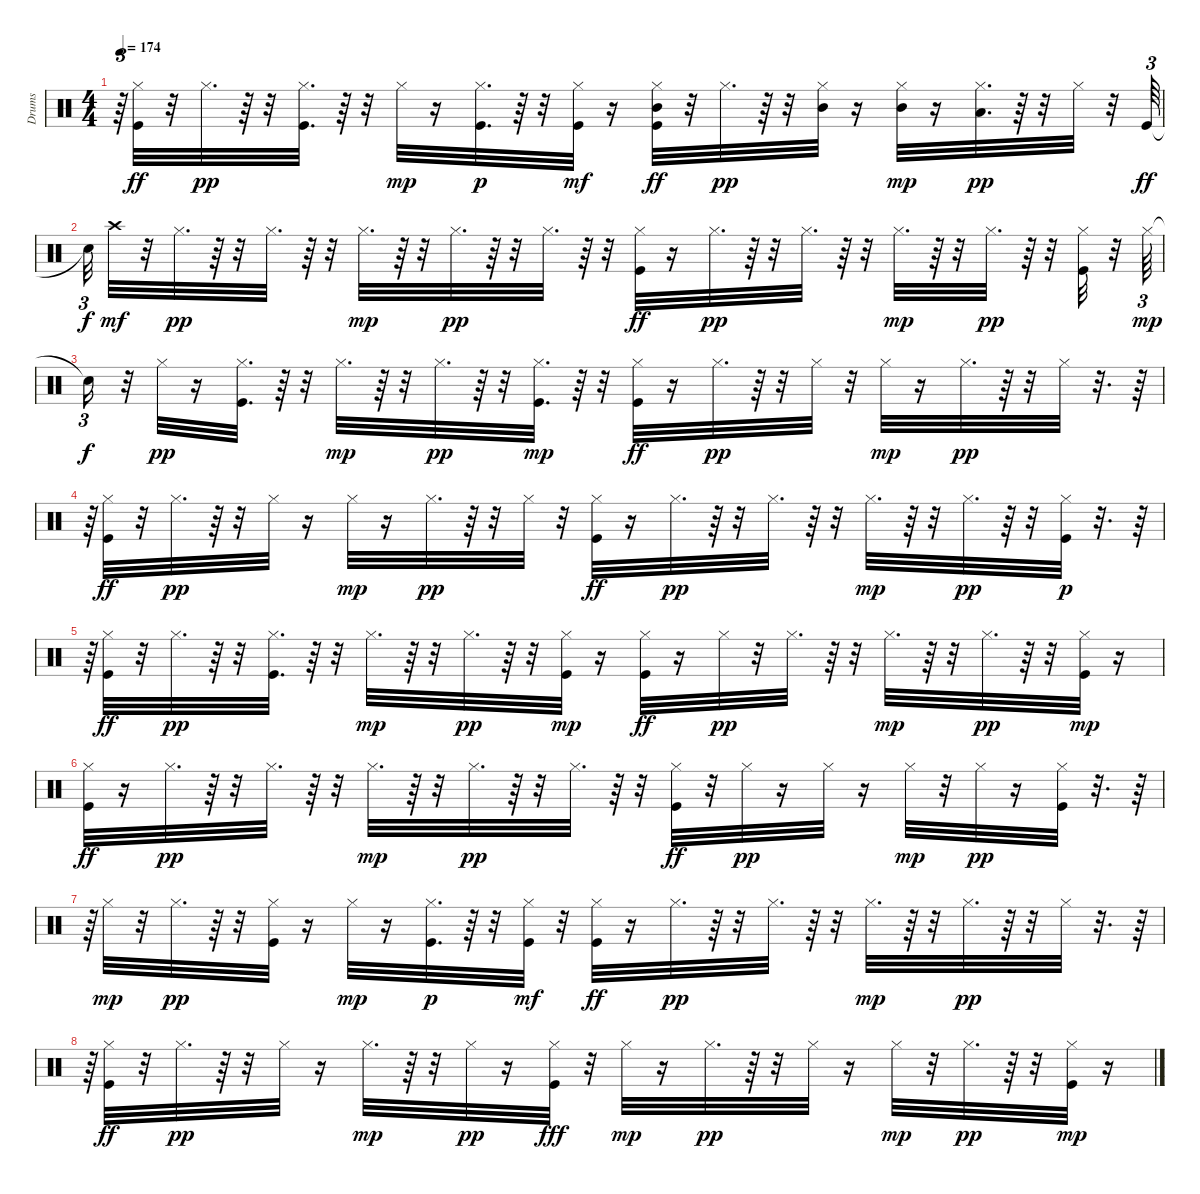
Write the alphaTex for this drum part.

\track ("Drums" "Drums") {instrument percussion}
\staff {score}
\articulation defaults
\ts (4 4)
\tempo 174
\clef neutral
\ks c
r.64{tu (3 2) dy mp} ("Hi-Hat (closed)" "Kick (hit)").32{dy ff} r.32 "Hi-Hat (closed)".32{d dy pp} r.64 r.32 ("Hi-Hat (closed)" "Kick (hit)").32{d} r.64 r.32 "Hi-Hat (closed)".32{dy mp} r.16 ("Hi-Hat (closed)" "Kick (hit)").32{d dy p} r.64 r.32 ("Hi-Hat (closed)" "Kick (hit)").32{dy mf} r.16 ("Hi-Hat (closed)" "Kick (hit)" "Mid Tom (hit)").32{dy ff} r.32 "Hi-Hat (closed)".32{d dy pp} r.64 r.32 ("Hi-Hat (closed)" "Mid Tom (hit)").32 r.16 ("Hi-Hat (closed)" "Mid Tom (hit)").32{dy mp} r.16 ("Hi-Hat (closed)" "Low Tom (hit)").32{d dy pp} r.64 r.32 "Hi-Hat (closed)".32 r.32 "Kick (hit)".64{tu (3 2) dy ff} |
"Snare (hit)"{t}.32{tu (3 2) dy f} "Crash high (hit)".32{dy mf} r.32 "Hi-Hat (closed)".32{d dy pp} r.64 r.32 "Hi-Hat (closed)".32{d} r.64 r.32 "Hi-Hat (closed)".32{d dy mp} r.64 r.32 "Hi-Hat (closed)".32{d dy pp} r.64 r.32 "Hi-Hat (closed)".32{d} r.64 r.32 ("Hi-Hat (closed)" "Kick (hit)").32{dy ff} r.16 "Hi-Hat (closed)".32{d dy pp} r.64 r.32 "Hi-Hat (closed)".32{d} r.64 r.32 "Hi-Hat (closed)".32{d dy mp} r.64 r.32 "Hi-Hat (closed)".32{d dy pp} r.64 r.32 ("Hi-Hat (closed)" "Kick (hit)").32 r.32 "Hi-Hat (closed)".64{tu (3 2) dy mp} |
"Snare (hit)"{t}.16{tu (3 2) dy f} r.32 "Hi-Hat (closed)".32{dy pp} r.16 ("Hi-Hat (closed)" "Kick (hit)").32{d} r.64 r.32 "Hi-Hat (closed)".32{d dy mp} r.64 r.32 "Hi-Hat (closed)".32{d dy pp} r.64 r.32 ("Hi-Hat (closed)" "Kick (hit)").32{d dy mp} r.64 r.32 ("Hi-Hat (closed)" "Kick (hit)").32{dy ff} r.16 "Hi-Hat (closed)".32{d dy pp} r.64 r.32 "Hi-Hat (closed)".32 r.32 "Hi-Hat (closed)".32{dy mp} r.16 "Hi-Hat (closed)".32{d dy pp} r.64 r.32 "Hi-Hat (closed)".32 r.32{d} r.64 |
r.64{tu (3 2)} ("Hi-Hat (closed)" "Kick (hit)").32{dy ff} r.32 "Hi-Hat (closed)".32{d dy pp} r.64 r.32 "Hi-Hat (closed)".32 r.16 "Hi-Hat (closed)".32{dy mp} r.16 "Hi-Hat (closed)".32{d dy pp} r.64 r.32 "Hi-Hat (closed)".32 r.32 ("Hi-Hat (closed)" "Kick (hit)").32{dy ff} r.16 "Hi-Hat (closed)".32{d dy pp} r.64 r.32 "Hi-Hat (closed)".32{d} r.64 r.32 "Hi-Hat (closed)".32{d dy mp} r.64 r.32 "Hi-Hat (closed)".32{d dy pp} r.64 r.32 ("Hi-Hat (closed)" "Kick (hit)").32{dy p} r.32{d} r.64 |
r.64{tu (3 2)} ("Hi-Hat (closed)" "Kick (hit)").32{dy ff} r.32 "Hi-Hat (closed)".32{d dy pp} r.64 r.32 ("Hi-Hat (closed)" "Kick (hit)").32{d} r.64 r.32 "Hi-Hat (closed)".32{d dy mp} r.64 r.32 "Hi-Hat (closed)".32{d dy pp} r.64 r.32 ("Hi-Hat (closed)" "Kick (hit)").32{dy mp} r.16 ("Hi-Hat (closed)" "Kick (hit)").32{dy ff} r.16 "Hi-Hat (closed)".32{dy pp} r.32 "Hi-Hat (closed)".32{d} r.64 r.32 "Hi-Hat (closed)".32{d dy mp} r.64 r.32 "Hi-Hat (closed)".32{d dy pp} r.64 r.32 ("Hi-Hat (closed)" "Kick (hit)").32{dy mp} r.16 |
("Hi-Hat (closed)" "Kick (hit)").32{dy ff} r.16 "Hi-Hat (closed)".32{d dy pp} r.64 r.32 "Hi-Hat (closed)".32{d} r.64 r.32 "Hi-Hat (closed)".32{d dy mp} r.64 r.32 "Hi-Hat (closed)".32{d dy pp} r.64 r.32 "Hi-Hat (closed)".32{d} r.64 r.32 ("Hi-Hat (closed)" "Kick (hit)").32{dy ff} r.32 "Hi-Hat (closed)".32{dy pp} r.16 "Hi-Hat (closed)".32 r.16 "Hi-Hat (closed)".32{dy mp} r.32 "Hi-Hat (closed)".32{dy pp} r.16 ("Hi-Hat (closed)" "Kick (hit)").32 r.32{d} r.64 |
r.64{tu (3 2)} "Hi-Hat (closed)".32{dy mp} r.32 "Hi-Hat (closed)".32{d dy pp} r.64 r.32 ("Hi-Hat (closed)" "Kick (hit)").32 r.16 "Hi-Hat (closed)".32{dy mp} r.16 ("Hi-Hat (closed)" "Kick (hit)").32{d dy p} r.64 r.32 ("Hi-Hat (closed)" "Kick (hit)").32{dy mf} r.32 ("Hi-Hat (closed)" "Kick (hit)").32{dy ff} r.16 "Hi-Hat (closed)".32{d dy pp} r.64 r.32 "Hi-Hat (closed)".32{d} r.64 r.32 "Hi-Hat (closed)".32{d dy mp} r.64 r.32 "Hi-Hat (closed)".32{d dy pp} r.64 r.32 "Hi-Hat (closed)".32 r.32{d} r.64 |
r.64{tu (3 2)} ("Hi-Hat (closed)" "Kick (hit)").32{dy ff} r.32 "Hi-Hat (closed)".32{d dy pp} r.64 r.32 "Hi-Hat (closed)".32 r.16 "Hi-Hat (closed)".32{d dy mp} r.64 r.32 "Hi-Hat (closed)".32{dy pp} r.16 ("Hi-Hat (closed)" "Kick (hit)").32{dy fff} r.32 "Hi-Hat (closed)".32{dy mp} r.16 "Hi-Hat (closed)".32{d dy pp} r.64 r.32 "Hi-Hat (closed)".32 r.16 "Hi-Hat (closed)".32{dy mp} r.32 "Hi-Hat (closed)".32{d dy pp} r.64 r.32 ("Hi-Hat (closed)" "Kick (hit)").32{dy mp} r.16
